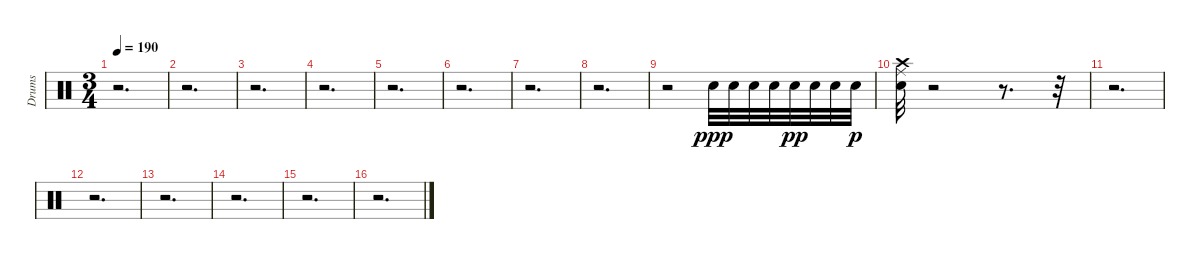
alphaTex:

\track ("Drums" "Drums") {instrument percussion}
\staff {score}
\articulation defaults
\ts (3 4)
\tempo 190
\clef neutral
\ks c
r.2{d dy p} |
r.2{d} |
r.2{d} |
r.2{d} |
r.2{d} |
r.2{d} |
r.2{d} |
r.2{d} |
r.2 "Electric Snare (hit)".32{dy ppp} "Electric Snare (hit)".32 "Electric Snare (hit)".32 "Electric Snare (hit)".32 "Electric Snare (hit)".32{dy pp} "Electric Snare (hit)".32 "Electric Snare (hit)".32 "Electric Snare (hit)".32{dy p} |
("Crash high (hit)" "Ride (middle)" "Electric Snare (hit)").32 r.2 r.8{d} r.32 |
r.2{d} |
r.2{d} |
r.2{d} |
r.2{d} |
r.2{d} |
r.2{d}
